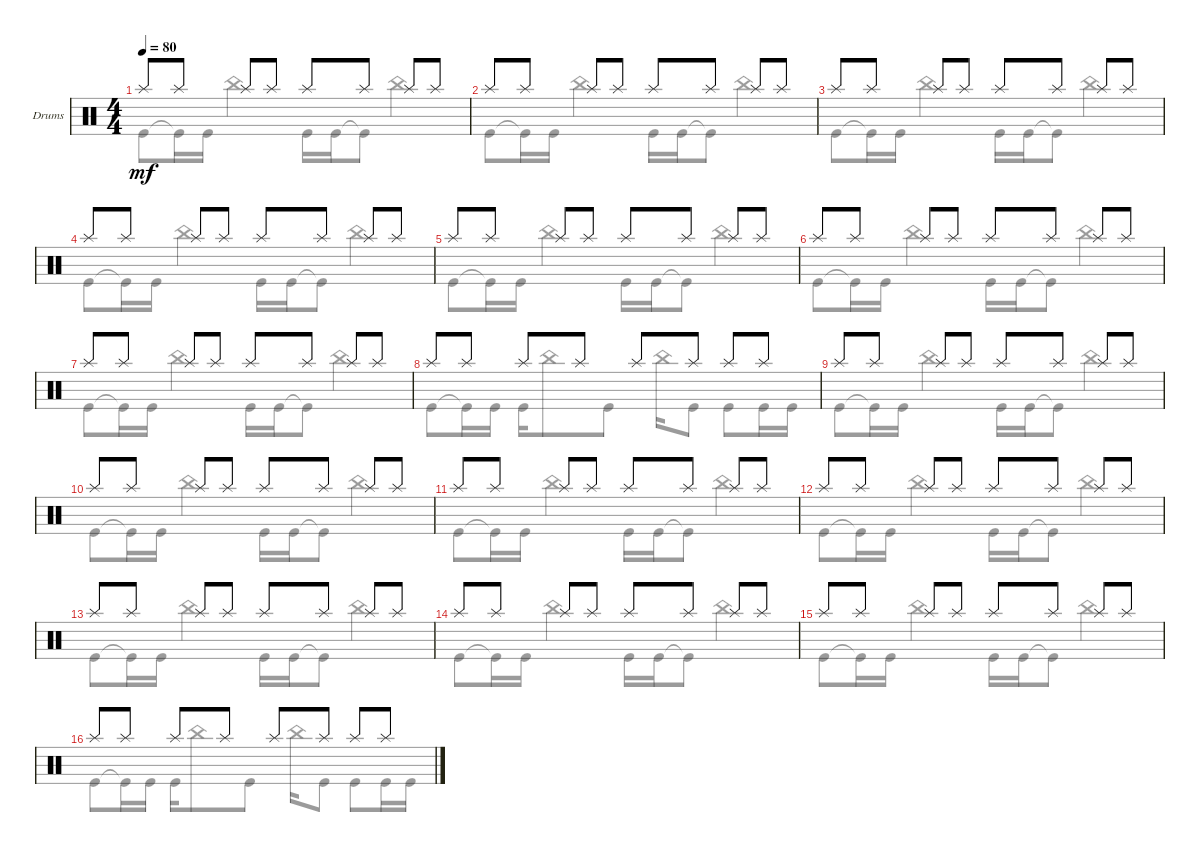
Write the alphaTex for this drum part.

\defaultSystemsLayout 4
\bracketExtendMode groupsimilarinstruments
\firstSystemTrackNameOrientation horizontal
\otherSystemsTrackNameOrientation horizontal
\track ("Drumkit" "Drums") {instrument percussion}
\staff {score}
\articulation defaults
\voice
\ts (4 4)
\tempo 80
\clef neutral
\scale
0.333333
\ks c "Splash (hit)".8{dy mf} "Splash (hit)".8 "Splash (hit)".8 "Splash (hit)".8 "Splash (hit)".8 "Splash (hit)".8 "Splash (hit)".8 "Splash (hit)".8
|
\scale
0.333333 "Splash (hit)".8 "Splash (hit)".8 "Splash (hit)".8 "Splash (hit)".8 "Splash (hit)".8 "Splash (hit)".8 "Splash (hit)".8 "Splash (hit)".8 |
\scale
0.333333 "Splash (hit)".8 "Splash (hit)".8 "Splash (hit)".8 "Splash (hit)".8 "Splash (hit)".8 "Splash (hit)".8 "Splash (hit)".8 "Splash (hit)".8 |
\scale
0.333333 "Splash (hit)".8 "Splash (hit)".8 "Splash (hit)".8 "Splash (hit)".8 "Splash (hit)".8 "Splash (hit)".8 "Splash (hit)".8 "Splash (hit)".8 |
\scale
0.333333 "Splash (hit)".8 "Splash (hit)".8 "Splash (hit)".8 "Splash (hit)".8 "Splash (hit)".8 "Splash (hit)".8 "Splash (hit)".8 "Splash (hit)".8 |
"Splash (hit)".8 "Splash (hit)".8 "Splash (hit)".8 "Splash (hit)".8 "Splash (hit)".8 "Splash (hit)".8 "Splash (hit)".8 "Splash (hit)".8 |
"Splash (hit)".8 "Splash (hit)".8 "Splash (hit)".8 "Splash (hit)".8 "Splash (hit)".8 "Splash (hit)".8 "Splash (hit)".8 "Splash (hit)".8 |
"Splash (hit)".8 "Splash (hit)".8 "Splash (hit)".8 "Splash (hit)".8 "Splash (hit)".8 "Splash (hit)".8 "Splash (hit)".8 "Splash (hit)".8 |
"Splash (hit)".8 "Splash (hit)".8 "Splash (hit)".8 "Splash (hit)".8 "Splash (hit)".8 "Splash (hit)".8 "Splash (hit)".8 "Splash (hit)".8 |
"Splash (hit)".8 "Splash (hit)".8 "Splash (hit)".8 "Splash (hit)".8 "Splash (hit)".8 "Splash (hit)".8 "Splash (hit)".8 "Splash (hit)".8 |
"Splash (hit)".8 "Splash (hit)".8 "Splash (hit)".8 "Splash (hit)".8 "Splash (hit)".8 "Splash (hit)".8 "Splash (hit)".8 "Splash (hit)".8 |
"Splash (hit)".8 "Splash (hit)".8 "Splash (hit)".8 "Splash (hit)".8 "Splash (hit)".8 "Splash (hit)".8 "Splash (hit)".8 "Splash (hit)".8 |
"Splash (hit)".8 "Splash (hit)".8 "Splash (hit)".8 "Splash (hit)".8 "Splash (hit)".8 "Splash (hit)".8 "Splash (hit)".8 "Splash (hit)".8 |
"Splash (hit)".8 "Splash (hit)".8 "Splash (hit)".8 "Splash (hit)".8 "Splash (hit)".8 "Splash (hit)".8 "Splash (hit)".8 "Splash (hit)".8 |
"Splash (hit)".8 "Splash (hit)".8 "Splash (hit)".8 "Splash (hit)".8 "Splash (hit)".8 "Splash (hit)".8 "Splash (hit)".8 "Splash (hit)".8 |
"Splash (hit)".8 "Splash (hit)".8 "Splash (hit)".8 "Splash (hit)".8 "Splash (hit)".8 "Splash (hit)".8 "Splash (hit)".8 "Splash (hit)".8
\voice
\clef neutral
\ottava regular
\simile none
\scale
0.333333
\ks c "Kick (hit)".8{dy mf} "Kick (hit)"{t}.16 "Kick (hit)".16 "China (hit)".4 "Kick (hit)".16 "Kick (hit)".16 "Kick (hit)"{t}.8 "China (hit)".4
|
\scale
0.333333 "Kick (hit)".8 "Kick (hit)"{t}.16 "Kick (hit)".16 "China (hit)".4 "Kick (hit)".16 "Kick (hit)".16 "Kick (hit)"{t}.8 "China (hit)".4 |
\scale
0.333333 "Kick (hit)".8 "Kick (hit)"{t}.16 "Kick (hit)".16 "China (hit)".4 "Kick (hit)".16 "Kick (hit)".16 "Kick (hit)"{t}.8 "China (hit)".4 |
\scale
0.333333 "Kick (hit)".8 "Kick (hit)"{t}.16 "Kick (hit)".16 "China (hit)".4 "Kick (hit)".16 "Kick (hit)".16 "Kick (hit)"{t}.8 "China (hit)".4 |
\scale
0.333333 "Kick (hit)".8 "Kick (hit)"{t}.16 "Kick (hit)".16 "China (hit)".4 "Kick (hit)".16 "Kick (hit)".16 "Kick (hit)"{t}.8 "China (hit)".4 |
"Kick (hit)".8 "Kick (hit)"{t}.16 "Kick (hit)".16 "China (hit)".4 "Kick (hit)".16 "Kick (hit)".16 "Kick (hit)"{t}.8 "China (hit)".4 |
"Kick (hit)".8 "Kick (hit)"{t}.16 "Kick (hit)".16 "China (hit)".4 "Kick (hit)".16 "Kick (hit)".16 "Kick (hit)"{t}.8 "China (hit)".4 |
"Kick (hit)".8 "Kick (hit)"{t}.16 "Kick (hit)".16 "Kick (hit)".16 "China (hit)".8 "Kick (hit)".8 "China (hit)".16 "Kick (hit)".8 "Kick (hit)".8 "Kick (hit)".16 "Kick (hit)".16 |
"Kick (hit)".8 "Kick (hit)"{t}.16 "Kick (hit)".16 "China (hit)".4 "Kick (hit)".16 "Kick (hit)".16 "Kick (hit)"{t}.8 "China (hit)".4 |
"Kick (hit)".8 "Kick (hit)"{t}.16 "Kick (hit)".16 "China (hit)".4 "Kick (hit)".16 "Kick (hit)".16 "Kick (hit)"{t}.8 "China (hit)".4 |
"Kick (hit)".8 "Kick (hit)"{t}.16 "Kick (hit)".16 "China (hit)".4 "Kick (hit)".16 "Kick (hit)".16 "Kick (hit)"{t}.8 "China (hit)".4 |
"Kick (hit)".8 "Kick (hit)"{t}.16 "Kick (hit)".16 "China (hit)".4 "Kick (hit)".16 "Kick (hit)".16 "Kick (hit)"{t}.8 "China (hit)".4 |
"Kick (hit)".8 "Kick (hit)"{t}.16 "Kick (hit)".16 "China (hit)".4 "Kick (hit)".16 "Kick (hit)".16 "Kick (hit)"{t}.8 "China (hit)".4 |
"Kick (hit)".8 "Kick (hit)"{t}.16 "Kick (hit)".16 "China (hit)".4 "Kick (hit)".16 "Kick (hit)".16 "Kick (hit)"{t}.8 "China (hit)".4 |
"Kick (hit)".8 "Kick (hit)"{t}.16 "Kick (hit)".16 "China (hit)".4 "Kick (hit)".16 "Kick (hit)".16 "Kick (hit)"{t}.8 "China (hit)".4 |
"Kick (hit)".8 "Kick (hit)"{t}.16 "Kick (hit)".16 "Kick (hit)".16 "China (hit)".8 "Kick (hit)".8 "China (hit)".16 "Kick (hit)".8 "Kick (hit)".8 "Kick (hit)".16 "Kick (hit)".16
